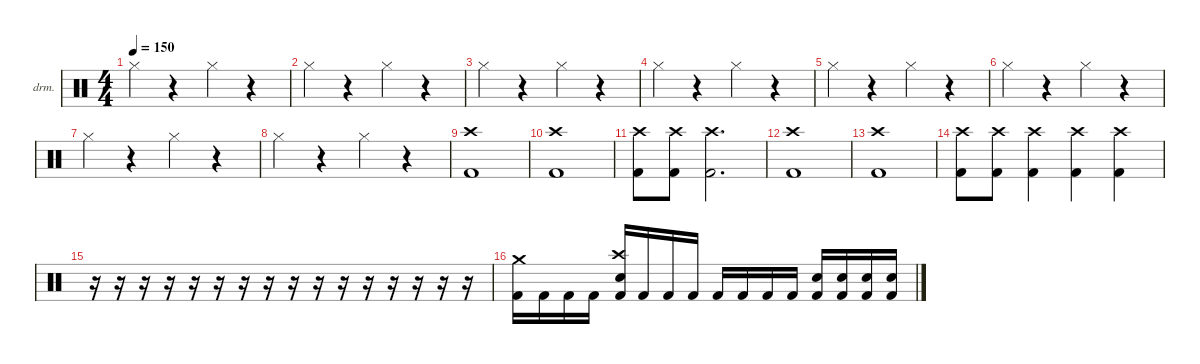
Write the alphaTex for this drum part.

\defaultSystemsLayout 4
\hideDynamics
\bracketExtendMode nobrackets
\firstSystemTrackNameOrientation horizontal
\otherSystemsTrackNameOrientation horizontal
\track ("Drumkit" "drm.") {mute instrument percussion}
\staff {score}
\articulation defaults
\ts (4 4)
\beaming (8 2 2 2 2)
\tempo 150
\clef neutral
\ks c "Hi-Hat (closed)".4{dy f}
r.4 "Hi-Hat (closed)".4 r.4 |
"Hi-Hat (closed)".4 r.4 "Hi-Hat (closed)".4 r.4 |
"Hi-Hat (closed)".4 r.4 "Hi-Hat (closed)".4 r.4 |
"Hi-Hat (closed)".4 r.4 "Hi-Hat (closed)".4 r.4 |
"Hi-Hat (closed)".4 r.4 "Hi-Hat (closed)".4 r.4 |
"Hi-Hat (closed)".4 r.4 "Hi-Hat (closed)".4 r.4 |
"Hi-Hat (closed)".4 r.4 "Hi-Hat (closed)".4 r.4 |
"Hi-Hat (closed)".4 r.4 "Hi-Hat (closed)".4 r.4 |
("Kick (hit) 2" "Crash high (hit)").1 |
("Kick (hit) 2" "Crash high (hit)").1 |
("Kick (hit) 2" "Crash high (hit)").8 ("Kick (hit) 2" "Crash high (hit)").8 ("Kick (hit) 2" "Crash high (hit)").2{d} |
("Kick (hit) 2" "Crash high (hit)").1 |
("Kick (hit) 2" "Crash high (hit)").1 |
("Crash high (hit)" "Kick (hit) 2").8 ("Crash high (hit)" "Kick (hit) 2").8 ("Crash high (hit)" "Kick (hit) 2").4 ("Crash high (hit)" "Kick (hit) 2").4 ("Crash high (hit)" "Kick (hit) 2").4 |
r.16 r.16 r.16 r.16 r.16 r.16 r.16 r.16 r.16 r.16 r.16 r.16 r.16 r.16 r.16 r.16 |
("Crash medium (hit)" "Kick (hit) 2").16 "Kick (hit) 2".16 "Kick (hit) 2".16 "Kick (hit) 2".16 ("Crash high (hit)" "Snare (hit) 2" "Kick (hit) 2").16 "Kick (hit) 2".16 "Kick (hit) 2".16 "Kick (hit) 2".16 "Kick (hit) 2".16 "Kick (hit) 2".16 "Kick (hit) 2".16 "Kick (hit) 2".16 ("Snare (hit) 2" "Kick (hit) 2").16 ("Snare (hit) 2" "Kick (hit) 2").16 ("Snare (hit) 2" "Kick (hit) 2").16 ("Snare (hit) 2" "Kick (hit) 2").16
